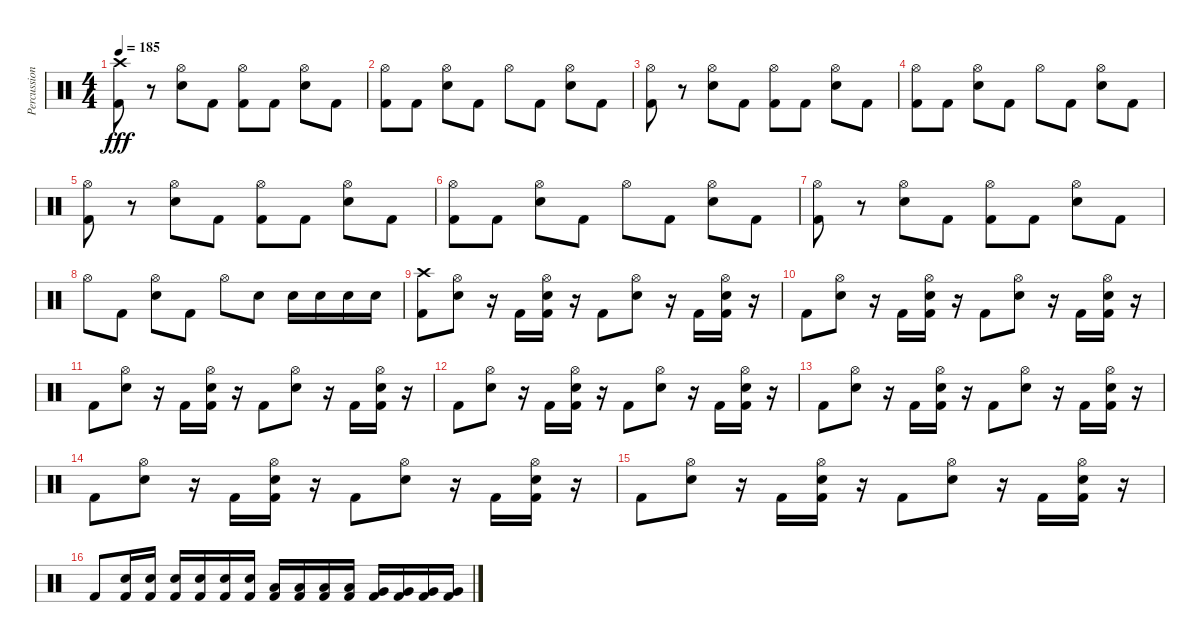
\track ("Percussion" "Percussion") {instrument percussion}
\staff {score}
\articulation defaults
\ts (4 4)
\tempo 185
\clef neutral
\ks c
("Kick (hit) 2" "Crash high (hit)").8{dy fff} r.8 ("Electric Snare (hit)" "Hi-Hat (open)").8 "Kick (hit) 2".8 ("Kick (hit) 2" "Hi-Hat (open)").8 "Kick (hit) 2".8 ("Electric Snare (hit)" "Hi-Hat (open)").8 "Kick (hit) 2".8 |
("Kick (hit) 2" "Hi-Hat (open)").8 "Kick (hit) 2".8 ("Electric Snare (hit)" "Hi-Hat (open)").8 "Kick (hit) 2".8 "Hi-Hat (open)".8 "Kick (hit) 2".8 ("Electric Snare (hit)" "Hi-Hat (open)").8 "Kick (hit) 2".8 |
("Kick (hit) 2" "Hi-Hat (open)").8 r.8 ("Electric Snare (hit)" "Hi-Hat (open)").8 "Kick (hit) 2".8 ("Kick (hit) 2" "Hi-Hat (open)").8 "Kick (hit) 2".8 ("Electric Snare (hit)" "Hi-Hat (open)").8 "Kick (hit) 2".8 |
("Kick (hit) 2" "Hi-Hat (open)").8 "Kick (hit) 2".8 ("Electric Snare (hit)" "Hi-Hat (open)").8 "Kick (hit) 2".8 "Hi-Hat (open)".8 "Kick (hit) 2".8 ("Electric Snare (hit)" "Hi-Hat (open)").8 "Kick (hit) 2".8 |
("Kick (hit) 2" "Hi-Hat (open)").8 r.8 ("Electric Snare (hit)" "Hi-Hat (open)").8 "Kick (hit) 2".8 ("Kick (hit) 2" "Hi-Hat (open)").8 "Kick (hit) 2".8 ("Electric Snare (hit)" "Hi-Hat (open)").8 "Kick (hit) 2".8 |
("Kick (hit) 2" "Hi-Hat (open)").8 "Kick (hit) 2".8 ("Electric Snare (hit)" "Hi-Hat (open)").8 "Kick (hit) 2".8 "Hi-Hat (open)".8 "Kick (hit) 2".8 ("Electric Snare (hit)" "Hi-Hat (open)").8 "Kick (hit) 2".8 |
("Kick (hit) 2" "Hi-Hat (open)").8 r.8 ("Electric Snare (hit)" "Hi-Hat (open)").8 "Kick (hit) 2".8 ("Kick (hit) 2" "Hi-Hat (open)").8 "Kick (hit) 2".8 ("Electric Snare (hit)" "Hi-Hat (open)").8 "Kick (hit) 2".8 |
"Hi-Hat (open)".8 "Kick (hit) 2".8 ("Electric Snare (hit)" "Hi-Hat (open)").8 "Kick (hit) 2".8 "Hi-Hat (open)".8 "Electric Snare (hit)".8 "Electric Snare (hit)".16 "Electric Snare (hit)".16 "Electric Snare (hit)".16 "Electric Snare (hit)".16 |
("Kick (hit) 2" "Crash high (hit)").8 ("Electric Snare (hit)" "Hi-Hat (open)").8 r.16 "Kick (hit) 2".16 ("Kick (hit) 2" "Electric Snare (hit)" "Hi-Hat (open)").16 r.16 "Kick (hit) 2".8 ("Electric Snare (hit)" "Hi-Hat (open)").8 r.16 "Kick (hit) 2".16 ("Kick (hit) 2" "Electric Snare (hit)" "Hi-Hat (open)").16 r.16 |
"Kick (hit) 2".8 ("Electric Snare (hit)" "Hi-Hat (open)").8 r.16 "Kick (hit) 2".16 ("Kick (hit) 2" "Electric Snare (hit)" "Hi-Hat (open)").16 r.16 "Kick (hit) 2".8 ("Electric Snare (hit)" "Hi-Hat (open)").8 r.16 "Kick (hit) 2".16 ("Kick (hit) 2" "Electric Snare (hit)" "Hi-Hat (open)").16 r.16 |
"Kick (hit) 2".8 ("Electric Snare (hit)" "Hi-Hat (open)").8 r.16 "Kick (hit) 2".16 ("Kick (hit) 2" "Electric Snare (hit)" "Hi-Hat (open)").16 r.16 "Kick (hit) 2".8 ("Electric Snare (hit)" "Hi-Hat (open)").8 r.16 "Kick (hit) 2".16 ("Kick (hit) 2" "Electric Snare (hit)" "Hi-Hat (open)").16 r.16 |
"Kick (hit) 2".8 ("Electric Snare (hit)" "Hi-Hat (open)").8 r.16 "Kick (hit) 2".16 ("Kick (hit) 2" "Electric Snare (hit)" "Hi-Hat (open)").16 r.16 "Kick (hit) 2".8 ("Electric Snare (hit)" "Hi-Hat (open)").8 r.16 "Kick (hit) 2".16 ("Kick (hit) 2" "Electric Snare (hit)" "Hi-Hat (open)").16 r.16 |
"Kick (hit) 2".8 ("Electric Snare (hit)" "Hi-Hat (open)").8 r.16 "Kick (hit) 2".16 ("Kick (hit) 2" "Electric Snare (hit)" "Hi-Hat (open)").16 r.16 "Kick (hit) 2".8 ("Electric Snare (hit)" "Hi-Hat (open)").8 r.16 "Kick (hit) 2".16 ("Kick (hit) 2" "Electric Snare (hit)" "Hi-Hat (open)").16 r.16 |
"Kick (hit) 2".8 ("Electric Snare (hit)" "Hi-Hat (open)").8 r.16 "Kick (hit) 2".16 ("Kick (hit) 2" "Electric Snare (hit)" "Hi-Hat (open)").16 r.16 "Kick (hit) 2".8 ("Electric Snare (hit)" "Hi-Hat (open)").8 r.16 "Kick (hit) 2".16 ("Kick (hit) 2" "Electric Snare (hit)" "Hi-Hat (open)").16 r.16 |
"Kick (hit) 2".8 ("Electric Snare (hit)" "Hi-Hat (open)").8 r.16 "Kick (hit) 2".16 ("Kick (hit) 2" "Electric Snare (hit)" "Hi-Hat (open)").16 r.16 "Kick (hit) 2".8 ("Electric Snare (hit)" "Hi-Hat (open)").8 r.16 "Kick (hit) 2".16 ("Kick (hit) 2" "Electric Snare (hit)" "Hi-Hat (open)").16 r.16 |
"Kick (hit) 2".8 ("Kick (hit) 2" "Electric Snare (hit)").16 ("Kick (hit) 2" "Electric Snare (hit)").16 ("Kick (hit) 2" "Electric Snare (hit)").16 ("Kick (hit) 2" "Electric Snare (hit)").16 ("Kick (hit) 2" "Electric Snare (hit)").16 ("Kick (hit) 2" "Electric Snare (hit)").16 ("Kick (hit) 2" "Low Tom (hit)").16 ("Kick (hit) 2" "Low Tom (hit)").16 ("Kick (hit) 2" "Low Tom (hit)").16 ("Kick (hit) 2" "Low Tom (hit)").16 ("Kick (hit) 2" "Very Low Tom (hit)").16 ("Kick (hit) 2" "Very Low Tom (hit)").16 ("Kick (hit) 2" "Very Low Tom (hit)").16 ("Kick (hit) 2" "Very Low Tom (hit)").16
